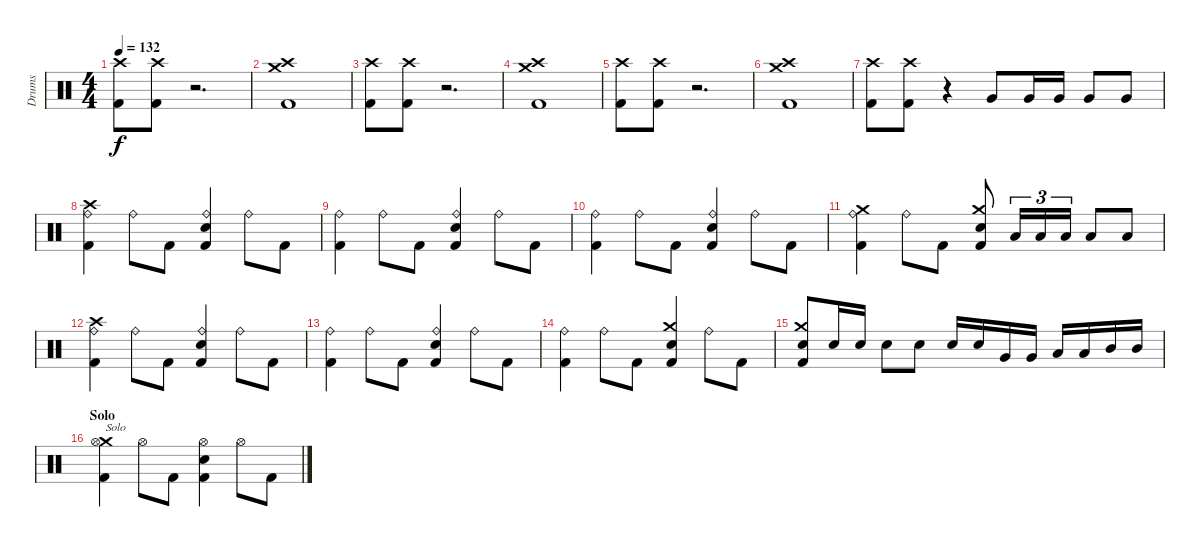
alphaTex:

\track ("Drums" "Drums") {instrument percussion}
\staff {score}
\articulation defaults
\ts (4 4)
\tempo 132
\clef neutral
\ks c
("Crash high (hit)" "Kick (hit) 2").8{dy f} ("Crash high (hit)" "Kick (hit) 2").8 r.2{d} |
("Crash medium (hit)" "Crash high (hit)" "Kick (hit) 2").1 |
("Crash high (hit)" "Kick (hit) 2").8 ("Crash high (hit)" "Kick (hit) 2").8 r.2{d} |
("Crash medium (hit)" "Crash high (hit)" "Kick (hit) 2").1 |
("Crash high (hit)" "Kick (hit) 2").8 ("Crash high (hit)" "Kick (hit) 2").8 r.2{d} |
("Crash medium (hit)" "Crash high (hit)" "Kick (hit) 2").1 |
("Crash high (hit)" "Kick (hit) 2").8 ("Crash high (hit)" "Kick (hit) 2").8 r.4 "Very Low Tom (hit)".8 "Very Low Tom (hit)".16 "Very Low Tom (hit)".16 "Very Low Tom (hit)".8 "Very Low Tom (hit)".8 |
("Crash high (hit)" "Ride (bell)" "Kick (hit) 2").4 "Ride (bell)".8 "Kick (hit) 2".8 ("Ride (bell)" "Electric Snare (hit)" "Kick (hit) 2").4 "Ride (bell)".8 "Kick (hit) 2".8 |
("Ride (bell)" "Kick (hit) 2").4 "Ride (bell)".8 "Kick (hit) 2".8 ("Ride (bell)" "Electric Snare (hit)" "Kick (hit) 2").4 "Ride (bell)".8 "Kick (hit) 2".8 |
("Ride (bell)" "Kick (hit) 2").4 "Ride (bell)".8 "Kick (hit) 2".8 ("Ride (bell)" "Electric Snare (hit)" "Kick (hit) 2").4 "Ride (bell)".8 "Kick (hit) 2".8 |
("Crash medium (hit)" "Ride (bell)" "Kick (hit) 2").4 "Ride (bell)".8 "Kick (hit) 2".8 ("Crash medium (hit)" "Electric Snare (hit)" "Kick (hit) 2").8 "Low Tom (hit)".16{tu (3 2)} "Low Tom (hit)".16{tu (3 2)} "Low Tom (hit)".16{tu (3 2)} "Low Tom (hit)".8 "Low Tom (hit)".8 |
("Crash high (hit)" "Ride (bell)" "Kick (hit) 2").4 "Ride (bell)".8 "Kick (hit) 2".8 ("Ride (bell)" "Electric Snare (hit)" "Kick (hit) 2").4 "Ride (bell)".8 "Kick (hit) 2".8 |
("Ride (bell)" "Kick (hit) 2").4 "Ride (bell)".8 "Kick (hit) 2".8 ("Ride (bell)" "Electric Snare (hit)" "Kick (hit) 2").4 "Ride (bell)".8 "Kick (hit) 2".8 |
("Ride (bell)" "Kick (hit) 2").4 "Ride (bell)".8 "Kick (hit) 2".8 ("Crash medium (hit)" "Electric Snare (hit)" "Kick (hit) 2").4 "Ride (bell)".8 "Kick (hit) 2".8 |
("Crash medium (hit)" "Electric Snare (hit)" "Kick (hit) 2").8 "Electric Snare (hit)".16 "Electric Snare (hit)".16 "Electric Snare (hit)".8 "Electric Snare (hit)".8 "Electric Snare (hit)".16 "Electric Snare (hit)".16 "Very Low Tom (hit)".16 "Very Low Tom (hit)".16 "Low Tom (hit)".16 "Low Tom (hit)".16 "Mid Tom (hit)".16 "Mid Tom (hit)".16 |
\section ("" "Solo")
("Crash medium (hit)" "Hi-Hat (open)" "Kick (hit) 2").4{txt "Solo"} "Hi-Hat (open)".8 "Kick (hit) 2".8 ("Hi-Hat (open)" "Electric Snare (hit)" "Kick (hit) 2").4 "Hi-Hat (open)".8 "Kick (hit) 2".8
